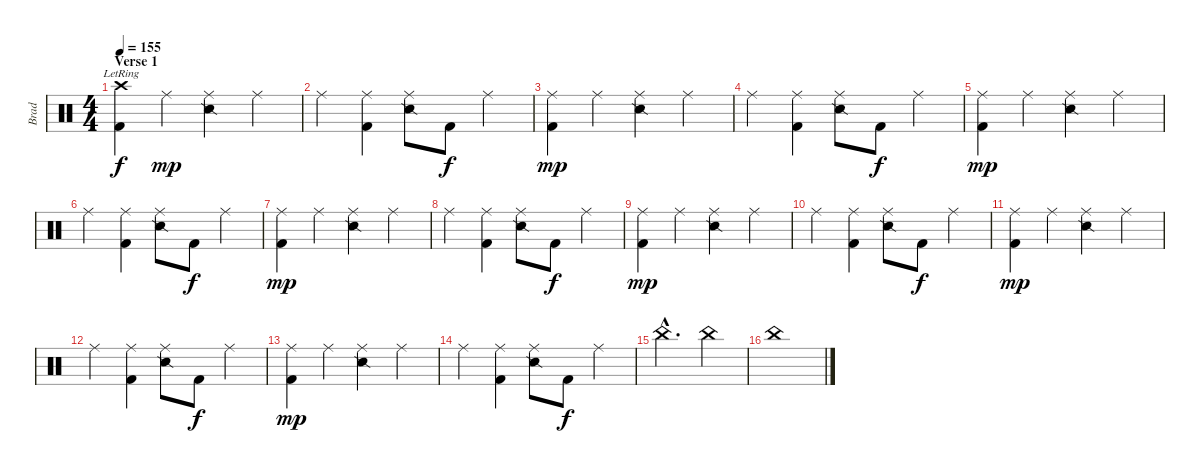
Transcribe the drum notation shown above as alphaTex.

\track ("Brad" "Brad") {instrument percussion}
\staff {score}
\articulation defaults
\ts (4 4)
\section ("" "Verse 1")
\tempo 155
\clef neutral
\ks c
("Crash high (hit)"{lr} "Kick (hit) 2").4{dy f} "Ride (middle)".4{dy mp} ("Ride (middle)" "Snare (side stick) 2").4 "Ride (middle)".4 |
"Ride (middle)".4 ("Ride (middle)" "Kick (hit) 2").4 ("Ride (middle)" "Snare (side stick) 2").8 "Kick (hit) 2".8{dy f} "Ride (middle)".4 |
("Ride (middle)" "Kick (hit) 2").4{dy mp} "Ride (middle)".4 ("Ride (middle)" "Snare (side stick) 2").4 "Ride (middle)".4 |
"Ride (middle)".4 ("Ride (middle)" "Kick (hit) 2").4 ("Ride (middle)" "Snare (side stick) 2").8 "Kick (hit) 2".8{dy f} "Ride (middle)".4 |
("Ride (middle)" "Kick (hit) 2").4{dy mp} "Ride (middle)".4 ("Ride (middle)" "Snare (side stick) 2").4 "Ride (middle)".4 |
"Ride (middle)".4 ("Ride (middle)" "Kick (hit) 2").4 ("Ride (middle)" "Snare (side stick) 2").8 "Kick (hit) 2".8{dy f} "Ride (middle)".4 |
("Ride (middle)" "Kick (hit) 2").4{dy mp} "Ride (middle)".4 ("Ride (middle)" "Snare (side stick) 2").4 "Ride (middle)".4 |
"Ride (middle)".4 ("Ride (middle)" "Kick (hit) 2").4 ("Ride (middle)" "Snare (side stick) 2").8 "Kick (hit) 2".8{dy f} "Ride (middle)".4 |
("Ride (middle)" "Kick (hit) 2").4{dy mp} "Ride (middle)".4 ("Ride (middle)" "Snare (side stick) 2").4 "Ride (middle)".4 |
"Ride (middle)".4 ("Ride (middle)" "Kick (hit) 2").4 ("Ride (middle)" "Snare (side stick) 2").8 "Kick (hit) 2".8{dy f} "Ride (middle)".4 |
("Ride (middle)" "Kick (hit) 2").4{dy mp} "Ride (middle)".4 ("Ride (middle)" "Snare (side stick) 2").4 "Ride (middle)".4 |
"Ride (middle)".4 ("Ride (middle)" "Kick (hit) 2").4 ("Ride (middle)" "Snare (side stick) 2").8 "Kick (hit) 2".8{dy f} "Ride (middle)".4 |
("Ride (middle)" "Kick (hit) 2").4{dy mp} "Ride (middle)".4 ("Ride (middle)" "Snare (side stick) 2").4 "Ride (middle)".4 |
"Ride (middle)".4 ("Ride (middle)" "Kick (hit) 2").4 ("Ride (middle)" "Snare (side stick) 2").8 "Kick (hit) 2".8{dy f} "Ride (middle)".4 |
"China (hit)"{hac}.2{d} "China (hit)".4 |
"China (hit)".1
